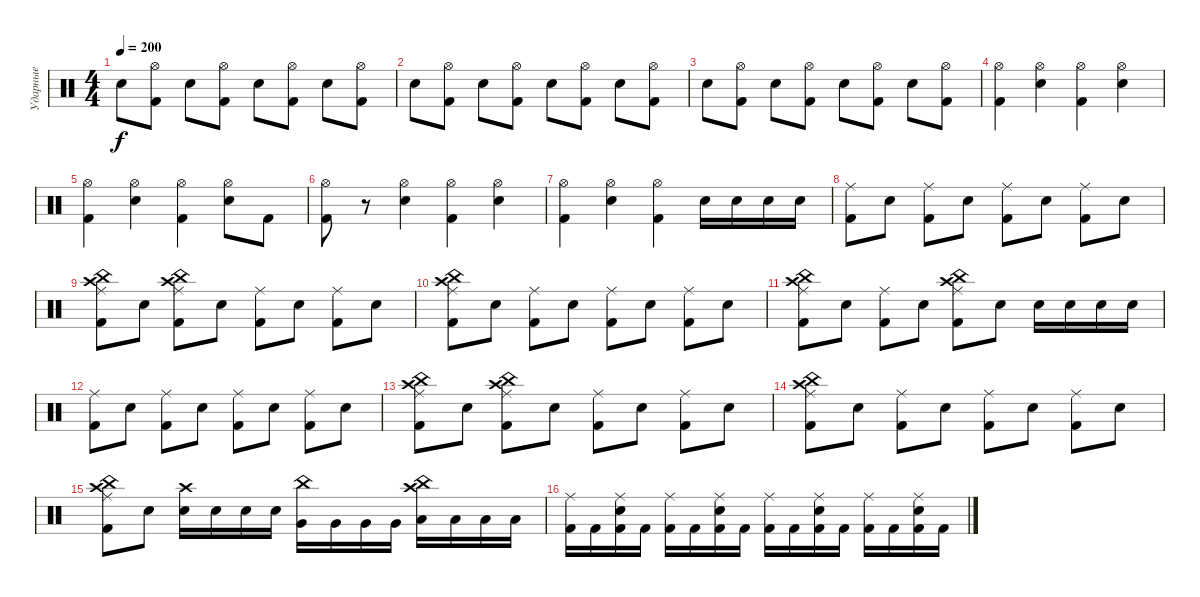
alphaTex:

\track ("Ударные" "Ударные") {instrument percussion}
\staff {score}
\articulation defaults
\ts (4 4)
\tempo 200
\clef neutral
\ks c "Electric Snare (hit)".8{dy f}
("Kick (hit) 2" "Hi-Hat (open)").8 "Electric Snare (hit)".8 ("Kick (hit) 2" "Hi-Hat (open)").8 "Electric Snare (hit)".8 ("Kick (hit) 2" "Hi-Hat (open)").8 "Electric Snare (hit)".8 ("Kick (hit) 2" "Hi-Hat (open)").8 |
"Electric Snare (hit)".8 ("Kick (hit) 2" "Hi-Hat (open)").8 "Electric Snare (hit)".8 ("Kick (hit) 2" "Hi-Hat (open)").8 "Electric Snare (hit)".8 ("Kick (hit) 2" "Hi-Hat (open)").8 "Electric Snare (hit)".8 ("Kick (hit) 2" "Hi-Hat (open)").8 |
"Electric Snare (hit)".8 ("Kick (hit) 2" "Hi-Hat (open)").8 "Electric Snare (hit)".8 ("Kick (hit) 2" "Hi-Hat (open)").8 "Electric Snare (hit)".8 ("Kick (hit) 2" "Hi-Hat (open)").8 "Electric Snare (hit)".8 ("Kick (hit) 2" "Hi-Hat (open)").8 |
("Kick (hit) 2" "Hi-Hat (open)").4 ("Electric Snare (hit)" "Hi-Hat (open)").4 ("Kick (hit) 2" "Hi-Hat (open)").4 ("Electric Snare (hit)" "Hi-Hat (open)").4 |
("Kick (hit) 2" "Hi-Hat (open)").4 ("Electric Snare (hit)" "Hi-Hat (open)").4 ("Kick (hit) 2" "Hi-Hat (open)").4 ("Electric Snare (hit)" "Hi-Hat (open)").8 "Kick (hit) 2".8 |
("Kick (hit) 2" "Hi-Hat (open)").8 r.8 ("Electric Snare (hit)" "Hi-Hat (open)").4 ("Kick (hit) 2" "Hi-Hat (open)").4 ("Electric Snare (hit)" "Hi-Hat (open)").4 |
("Kick (hit) 2" "Hi-Hat (open)").4 ("Electric Snare (hit)" "Hi-Hat (open)").4 ("Kick (hit) 2" "Hi-Hat (open)").4 "Electric Snare (hit)".16 "Electric Snare (hit)".16 "Electric Snare (hit)".16 "Electric Snare (hit)".16 |
("Kick (hit) 2" "Ride (middle)").8 "Electric Snare (hit)".8 ("Kick (hit) 2" "Ride (middle)").8 "Electric Snare (hit)".8 ("Kick (hit) 2" "Ride (middle)").8 "Electric Snare (hit)".8 ("Kick (hit) 2" "Ride (middle)").8 "Electric Snare (hit)".8 |
("Kick (hit) 2" "Crash high (hit)" "China (hit)" "Ride (middle)").8 "Electric Snare (hit)".8 ("Kick (hit) 2" "China (hit)" "Crash high (hit)" "Ride (middle)").8 "Electric Snare (hit)".8 ("Kick (hit) 2" "Ride (middle)").8 "Electric Snare (hit)".8 ("Kick (hit) 2" "Ride (middle)").8 "Electric Snare (hit)".8 |
("Kick (hit) 2" "Crash high (hit)" "China (hit)" "Ride (middle)").8 "Electric Snare (hit)".8 ("Kick (hit) 2" "Ride (middle)").8 "Electric Snare (hit)".8 ("Kick (hit) 2" "Ride (middle)").8 "Electric Snare (hit)".8 ("Kick (hit) 2" "Ride (middle)").8 "Electric Snare (hit)".8 |
("Kick (hit) 2" "China (hit)" "Crash high (hit)" "Ride (middle)").8 "Electric Snare (hit)".8 ("Kick (hit) 2" "Ride (middle)").8 "Electric Snare (hit)".8 ("Kick (hit) 2" "Crash high (hit)" "China (hit)" "Ride (middle)").8 "Electric Snare (hit)".8 "Electric Snare (hit)".16 "Electric Snare (hit)".16 "Electric Snare (hit)".16 "Electric Snare (hit)".16 |
("Kick (hit) 2" "Ride (middle)").8 "Electric Snare (hit)".8 ("Kick (hit) 2" "Ride (middle)").8 "Electric Snare (hit)".8 ("Kick (hit) 2" "Ride (middle)").8 "Electric Snare (hit)".8 ("Kick (hit) 2" "Ride (middle)").8 "Electric Snare (hit)".8 |
("Kick (hit) 2" "Crash high (hit)" "China (hit)" "Ride (middle)").8 "Electric Snare (hit)".8 ("Kick (hit) 2" "China (hit)" "Crash high (hit)" "Ride (middle)").8 "Electric Snare (hit)".8 ("Kick (hit) 2" "Ride (middle)").8 "Electric Snare (hit)".8 ("Kick (hit) 2" "Ride (middle)").8 "Electric Snare (hit)".8 |
("Kick (hit) 2" "Crash high (hit)" "China (hit)" "Ride (middle)").8 "Electric Snare (hit)".8 ("Kick (hit) 2" "Ride (middle)").8 "Electric Snare (hit)".8 ("Kick (hit) 2" "Ride (middle)").8 "Electric Snare (hit)".8 ("Kick (hit) 2" "Ride (middle)").8 "Electric Snare (hit)".8 |
("Kick (hit) 2" "Crash high (hit)" "China (hit)" "Ride (middle)").8 "Electric Snare (hit)".8 ("Snare (hit) 2" "Crash high (hit)").16 "Snare (hit) 2".16 "Snare (hit) 2".16 "Snare (hit) 2".16 ("Very Low Tom (hit)" "China (hit)").16 "Very Low Tom (hit)".16 "Very Low Tom (hit)".16 "Very Low Tom (hit)".16 ("Low Floor Tom (hit)" "China (hit)" "Crash high (hit)").16 "Low Floor Tom (hit)".16 "Low Floor Tom (hit)".16 "Low Floor Tom (hit)".16 |
("Kick (hit) 2" "Ride (middle)").16 "Kick (hit) 2".16 ("Kick (hit) 2" "Electric Snare (hit)" "Ride (middle)").16 "Kick (hit) 2".16 ("Kick (hit) 2" "Ride (middle)").16 "Kick (hit) 2".16 ("Kick (hit) 2" "Electric Snare (hit)" "Ride (middle)").16 "Kick (hit) 2".16 ("Kick (hit) 2" "Ride (middle)").16 "Kick (hit) 2".16 ("Kick (hit) 2" "Electric Snare (hit)" "Ride (middle)").16 "Kick (hit) 2".16 ("Kick (hit) 2" "Ride (middle)").16 "Kick (hit) 2".16 ("Kick (hit) 2" "Electric Snare (hit)" "Ride (middle)").16 "Kick (hit) 2".16
